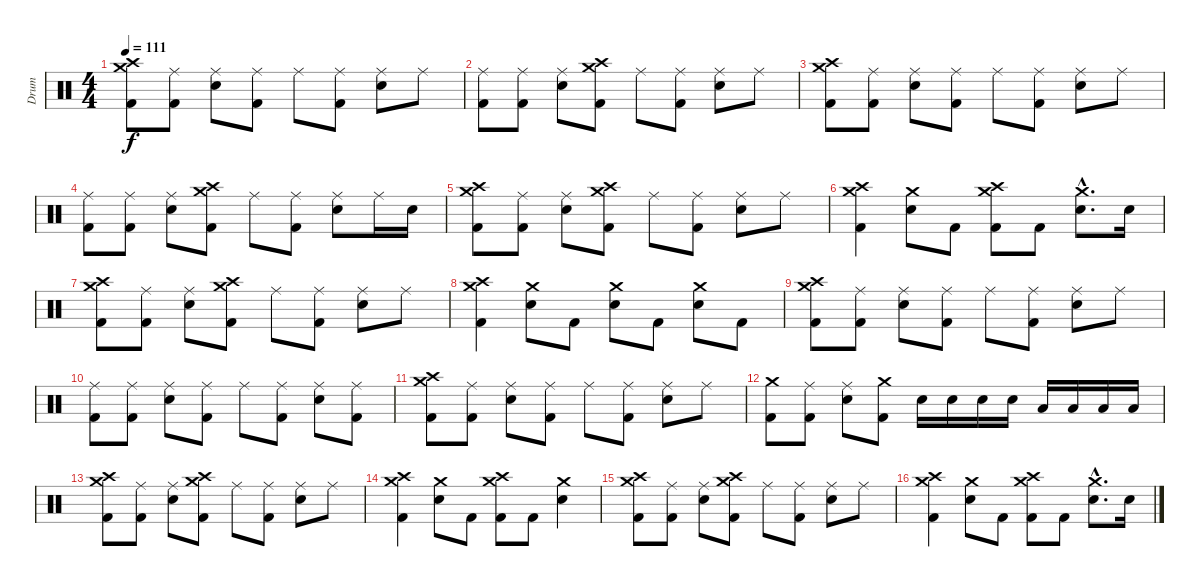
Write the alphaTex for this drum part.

\track ("Drum" "Drum") {instrument percussion}
\staff {score}
\articulation defaults
\ts (4 4)
\tempo 111
\clef neutral
\ks c
("Crash high (hit)" "Crash medium (hit)" "Kick (hit) 2").8{dy f} ("Ride (middle)" "Kick (hit) 2").8 ("Ride (middle)" "Snare (hit) 2").8 ("Ride (middle)" "Kick (hit) 2").8 "Ride (middle)".8 ("Ride (middle)" "Kick (hit) 2").8 ("Ride (middle)" "Snare (hit) 2").8 "Ride (middle)".8 |
("Ride (middle)" "Kick (hit) 2").8 ("Ride (middle)" "Kick (hit) 2").8 ("Ride (middle)" "Snare (hit) 2").8 ("Crash high (hit)" "Crash medium (hit)" "Kick (hit) 2").8 "Ride (middle)".8 ("Ride (middle)" "Kick (hit) 2").8 ("Ride (middle)" "Snare (hit) 2").8 "Ride (middle)".8 |
("Crash high (hit)" "Crash medium (hit)" "Kick (hit) 2").8 ("Ride (middle)" "Kick (hit) 2").8 ("Ride (middle)" "Snare (hit) 2").8 ("Ride (middle)" "Kick (hit) 2").8 "Ride (middle)".8 ("Ride (middle)" "Kick (hit) 2").8 ("Ride (middle)" "Snare (hit) 2").8 "Ride (middle)".8 |
("Ride (middle)" "Kick (hit) 2").8 ("Ride (middle)" "Kick (hit) 2").8 ("Ride (middle)" "Snare (hit) 2").8 ("Crash high (hit)" "Crash medium (hit)" "Kick (hit) 2").8 "Ride (middle)".8 ("Ride (middle)" "Kick (hit) 2").8 ("Ride (middle)" "Snare (hit) 2").8 "Ride (middle)".16 "Snare (hit) 2".16 |
("Crash high (hit)" "Crash medium (hit)" "Kick (hit) 2").8 ("Ride (middle)" "Kick (hit) 2").8 ("Ride (middle)" "Snare (hit) 2").8 ("Crash high (hit)" "Crash medium (hit)" "Kick (hit) 2").8 "Ride (middle)".8 ("Ride (middle)" "Kick (hit) 2").8 ("Ride (middle)" "Snare (hit) 2").8 "Ride (middle)".8 |
("Crash high (hit)" "Crash medium (hit)" "Kick (hit) 2").4 ("Crash medium (hit)" "Snare (hit) 2").8 "Kick (hit) 2".8 ("Crash high (hit)" "Crash medium (hit)" "Kick (hit) 2").8 "Kick (hit) 2".8 ("Crash medium (hit)"{hac} "Snare (hit) 2"{hac}).8{d} "Snare (hit) 2".16 |
("Crash high (hit)" "Crash medium (hit)" "Kick (hit) 2").8 ("Ride (middle)" "Kick (hit) 2").8 ("Ride (middle)" "Snare (hit) 2").8 ("Crash high (hit)" "Crash medium (hit)" "Kick (hit) 2").8 "Ride (middle)".8 ("Ride (middle)" "Kick (hit) 2").8 ("Ride (middle)" "Snare (hit) 2").8 "Ride (middle)".8 |
("Crash high (hit)" "Crash medium (hit)" "Kick (hit) 2").4 ("Crash medium (hit)" "Snare (hit) 2").8 "Kick (hit) 2".8 ("Crash medium (hit)" "Snare (hit) 2").8 "Kick (hit) 2".8 ("Crash medium (hit)" "Snare (hit) 2").8 "Kick (hit) 2".8 |
("Crash high (hit)" "Crash medium (hit)" "Kick (hit) 2").8 ("Ride (middle)" "Kick (hit) 2").8 ("Ride (middle)" "Snare (hit) 2").8 ("Ride (middle)" "Kick (hit) 2").8 "Ride (middle)".8 ("Ride (middle)" "Kick (hit) 2").8 ("Ride (middle)" "Snare (hit) 2").8 "Ride (middle)".8 |
("Ride (middle)" "Kick (hit) 2").8 ("Ride (middle)" "Kick (hit) 2").8 ("Ride (middle)" "Snare (hit) 2").8 ("Ride (middle)" "Kick (hit) 2").8 "Ride (middle)".8 ("Ride (middle)" "Kick (hit) 2").8 ("Ride (middle)" "Snare (hit) 2").8 ("Ride (middle)" "Kick (hit) 2").8 |
("Crash high (hit)" "Crash medium (hit)" "Kick (hit) 2").8 ("Ride (middle)" "Kick (hit) 2").8 ("Ride (middle)" "Snare (hit) 2").8 ("Ride (middle)" "Kick (hit) 2").8 "Ride (middle)".8 ("Ride (middle)" "Kick (hit) 2").8 ("Ride (middle)" "Snare (hit) 2").8 "Ride (middle)".8 |
("Crash medium (hit)" "Kick (hit) 2").8 ("Ride (middle)" "Kick (hit) 2").8 ("Ride (middle)" "Snare (hit) 2").8 ("Crash medium (hit)" "Kick (hit) 2").8 "Snare (hit) 2".16 "Snare (hit) 2".16 "Snare (hit) 2".16 "Snare (hit) 2".16 "Low Tom (hit)".16 "Low Tom (hit)".16 "Low Tom (hit)".16 "Low Tom (hit)".16 |
("Crash high (hit)" "Crash medium (hit)" "Kick (hit) 2").8 ("Ride (middle)" "Kick (hit) 2").8 ("Ride (middle)" "Snare (hit) 2").8 ("Crash high (hit)" "Crash medium (hit)" "Kick (hit) 2").8 "Ride (middle)".8 ("Ride (middle)" "Kick (hit) 2").8 ("Ride (middle)" "Snare (hit) 2").8 "Ride (middle)".8 |
("Crash high (hit)" "Crash medium (hit)" "Kick (hit) 2").4 ("Crash medium (hit)" "Snare (hit) 2").8 "Kick (hit) 2".8 ("Crash high (hit)" "Crash medium (hit)" "Kick (hit) 2").8 "Kick (hit) 2".8 ("Crash medium (hit)" "Snare (hit) 2").4 |
("Crash high (hit)" "Crash medium (hit)" "Kick (hit) 2").8 ("Ride (middle)" "Kick (hit) 2").8 ("Ride (middle)" "Snare (hit) 2").8 ("Crash high (hit)" "Crash medium (hit)" "Kick (hit) 2").8 "Ride (middle)".8 ("Ride (middle)" "Kick (hit) 2").8 ("Ride (middle)" "Snare (hit) 2").8 "Ride (middle)".8 |
("Crash high (hit)" "Crash medium (hit)" "Kick (hit) 2").4 ("Crash medium (hit)" "Snare (hit) 2").8 "Kick (hit) 2".8 ("Crash high (hit)" "Crash medium (hit)" "Kick (hit) 2").8 "Kick (hit) 2".8 ("Crash medium (hit)"{hac} "Snare (hit) 2"{hac}).8{d} "Snare (hit) 2".16
